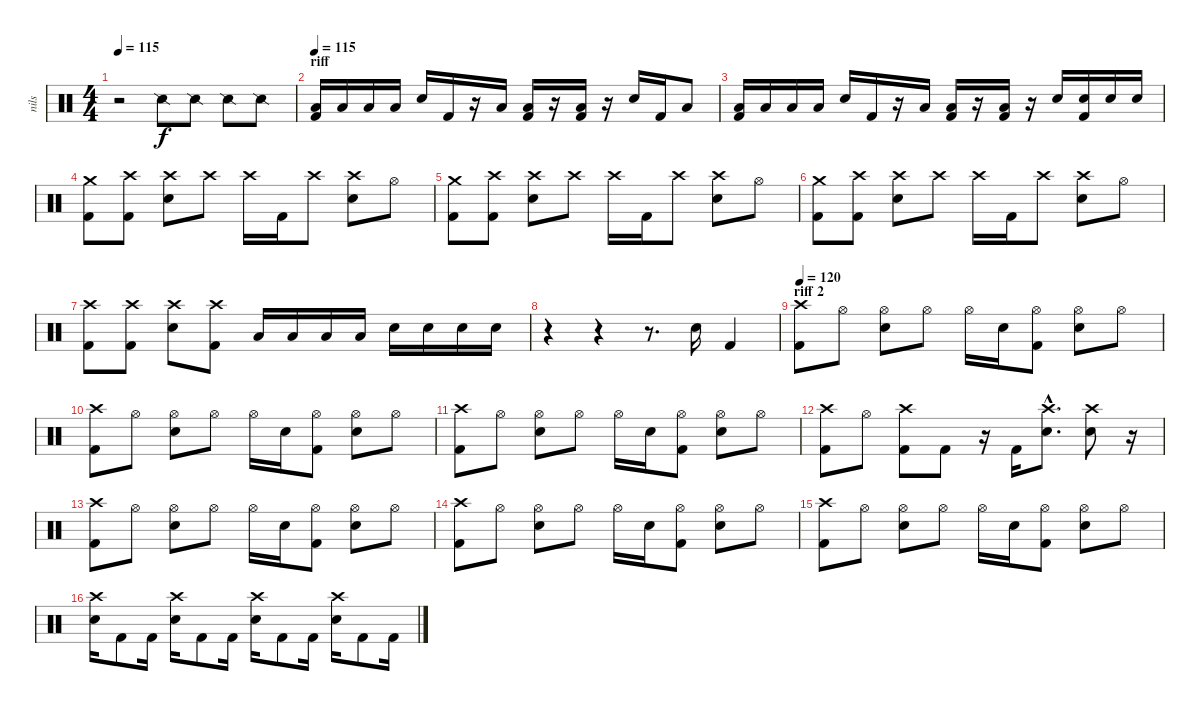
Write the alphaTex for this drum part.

\track ("nils" "nils") {instrument percussion}
\staff {score}
\articulation defaults
\ts (4 4)
\tempo 115
\clef neutral
\ks c
r.2{dy f} "Snare (side stick) 2".8 "Snare (side stick) 2".8 "Snare (side stick) 2".8 "Snare (side stick) 2".8 |
\section ("" "riff")
\tempo 115
("Low Floor Tom (hit)" "Kick (hit) 2").16{volume 12 balance 0} "Low Floor Tom (hit)".16 "Low Floor Tom (hit)".16 "Low Floor Tom (hit)".16 "Snare (hit) 2".16{balance 16} "Kick (hit) 2".16 r.16 "Low Tom (hit)".16 ("Low Floor Tom (hit)" "Kick (hit) 2").16 r.16 ("Low Floor Tom (hit)" "Kick (hit) 2").16 r.16 "Snare (hit) 2".16 "Kick (hit) 2".16 "Low Tom (hit)".8 |
("Low Floor Tom (hit)" "Kick (hit) 2").16 "Low Floor Tom (hit)".16 "Low Floor Tom (hit)".16 "Low Floor Tom (hit)".16 "Snare (hit) 2".16 "Kick (hit) 2".16 r.16 "Low Tom (hit)".16 ("Low Floor Tom (hit)" "Kick (hit) 2").16 r.16 ("Low Floor Tom (hit)" "Kick (hit) 2").16 r.16 "Snare (hit) 2".16{balance 8} ("Snare (hit) 2" "Kick (hit) 2").16{volume 13 balance 8} "Snare (hit) 2".16 "Snare (hit) 2".16 |
("Crash medium (hit)" "Kick (hit) 2").8{volume 14 balance 8} ("Crash high (hit)" "Kick (hit) 2").8 ("Crash high (hit)" "Snare (hit) 2").8 "Crash high (hit)".8 "Crash high (hit)".16 "Kick (hit) 2".16 "Crash high (hit)".8 ("Crash high (hit)" "Snare (hit) 2").8 "Hi-Hat (open)".8 |
("Crash medium (hit)" "Kick (hit) 2").8{volume 14 balance 8} ("Crash high (hit)" "Kick (hit) 2").8 ("Crash high (hit)" "Snare (hit) 2").8 "Crash high (hit)".8 "Crash high (hit)".16 "Kick (hit) 2".16 "Crash high (hit)".8 ("Crash high (hit)" "Snare (hit) 2").8 "Hi-Hat (open)".8 |
("Crash medium (hit)" "Kick (hit) 2").8{volume 14 balance 8} ("Crash high (hit)" "Kick (hit) 2").8 ("Crash high (hit)" "Snare (hit) 2").8 "Crash high (hit)".8 "Crash high (hit)".16 "Kick (hit) 2".16 "Crash high (hit)".8 ("Crash high (hit)" "Snare (hit) 2").8 "Hi-Hat (open)".8 |
("Crash high (hit)" "Kick (hit) 2").8 ("Crash high (hit)" "Kick (hit) 2").8 ("Crash high (hit)" "Snare (hit) 2").8 ("Crash high (hit)" "Kick (hit) 2").8 "Low Floor Tom (hit)".16 "Low Floor Tom (hit)".16 "Low Floor Tom (hit)".16 "Low Floor Tom (hit)".16 "Snare (hit) 2".16 "Snare (hit) 2".16 "Snare (hit) 2".16 "Snare (hit) 2".16 |
r.4 r.4 r.8{d} "Snare (hit) 2".16 "Kick (hit) 2".4 |
\section ("" "riff 2")
\tempo 120
("Crash high (hit)" "Kick (hit) 2").8 "Hi-Hat (open)".8 ("Hi-Hat (open)" "Snare (hit) 2").8 "Hi-Hat (open)".8 "Hi-Hat (open)".16 "Snare (hit) 2".16 ("Hi-Hat (open)" "Kick (hit) 2").8 ("Hi-Hat (open)" "Snare (hit) 2").8 "Hi-Hat (open)".8 |
("Crash high (hit)" "Kick (hit) 2").8 "Hi-Hat (open)".8 ("Hi-Hat (open)" "Snare (hit) 2").8 "Hi-Hat (open)".8 "Hi-Hat (open)".16 "Snare (hit) 2".16 ("Hi-Hat (open)" "Kick (hit) 2").8 ("Hi-Hat (open)" "Snare (hit) 2").8 "Hi-Hat (open)".8 |
("Crash high (hit)" "Kick (hit) 2").8 "Hi-Hat (open)".8 ("Hi-Hat (open)" "Snare (hit) 2").8 "Hi-Hat (open)".8 "Hi-Hat (open)".16 "Snare (hit) 2".16 ("Hi-Hat (open)" "Kick (hit) 2").8 ("Hi-Hat (open)" "Snare (hit) 2").8 "Hi-Hat (open)".8 |
("Crash high (hit)" "Kick (hit) 2").8 "Hi-Hat (open)".8 ("Crash high (hit)" "Kick (hit) 2").8 "Kick (hit) 2".8 r.16 "Kick (hit) 2".16 ("Crash high (hit)"{hac} "Snare (hit) 2"{hac}).8{d} ("Crash high (hit)" "Snare (hit) 2").8 r.16 |
("Crash high (hit)" "Kick (hit) 2").8 "Hi-Hat (open)".8 ("Hi-Hat (open)" "Snare (hit) 2").8 "Hi-Hat (open)".8 "Hi-Hat (open)".16 "Snare (hit) 2".16 ("Hi-Hat (open)" "Kick (hit) 2").8 ("Hi-Hat (open)" "Snare (hit) 2").8 "Hi-Hat (open)".8 |
("Crash high (hit)" "Kick (hit) 2").8 "Hi-Hat (open)".8 ("Hi-Hat (open)" "Snare (hit) 2").8 "Hi-Hat (open)".8 "Hi-Hat (open)".16 "Snare (hit) 2".16 ("Hi-Hat (open)" "Kick (hit) 2").8 ("Hi-Hat (open)" "Snare (hit) 2").8 "Hi-Hat (open)".8 |
("Crash high (hit)" "Kick (hit) 2").8 "Hi-Hat (open)".8 ("Hi-Hat (open)" "Snare (hit) 2").8 "Hi-Hat (open)".8 "Hi-Hat (open)".16 "Snare (hit) 2".16 ("Hi-Hat (open)" "Kick (hit) 2").8 ("Hi-Hat (open)" "Snare (hit) 2").8 "Hi-Hat (open)".8 |
("Crash high (hit)" "Snare (hit) 2").16 "Kick (hit) 2".8 "Kick (hit) 2".16 ("Crash high (hit)" "Snare (hit) 2").16 "Kick (hit) 2".8 "Kick (hit) 2".16 ("Crash high (hit)" "Snare (hit) 2").16 "Kick (hit) 2".8 "Kick (hit) 2".16 ("Crash high (hit)" "Snare (hit) 2").16 "Kick (hit) 2".8 "Kick (hit) 2".16
